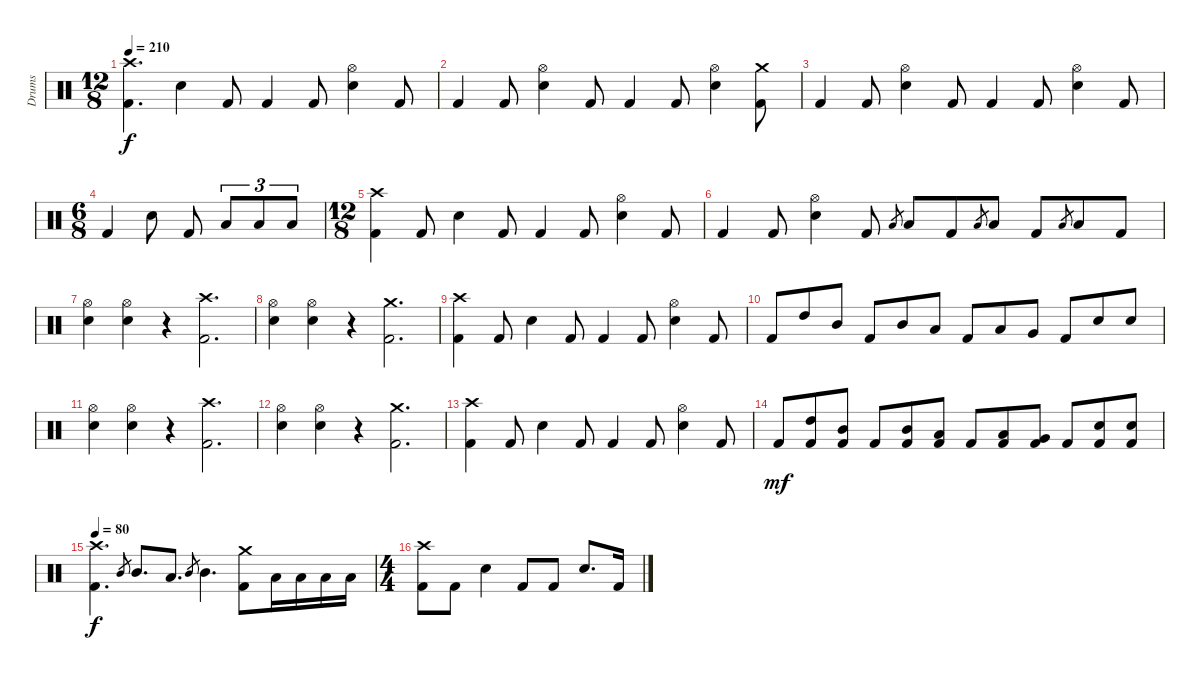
\track ("Drums" "Drums") {instrument percussion}
\staff {score}
\articulation defaults
\ts (12 8)
\tempo 210
\clef neutral
\ks c
("Kick (hit) 2" "Crash high (hit)").4{d dy f} "Snare (hit) 2".4 "Kick (hit) 2".8 "Kick (hit) 2".4 "Kick (hit) 2".8 ("Snare (hit) 2" "Hi-Hat (open)").4 "Kick (hit) 2".8 |
"Kick (hit) 2".4 "Kick (hit) 2".8 ("Snare (hit) 2" "Hi-Hat (open)").4 "Kick (hit) 2".8 "Kick (hit) 2".4 "Kick (hit) 2".8 ("Snare (hit) 2" "Hi-Hat (open)").4 ("Kick (hit) 2" "Crash medium (hit)").8 |
"Kick (hit) 2".4 "Kick (hit) 2".8 ("Snare (hit) 2" "Hi-Hat (open)").4 "Kick (hit) 2".8 "Kick (hit) 2".4 "Kick (hit) 2".8 ("Snare (hit) 2" "Hi-Hat (open)").4 "Kick (hit) 2".8 |
\ts (6 8)
"Kick (hit) 2".4 "Snare (hit) 2".8 "Kick (hit) 2".8 "Low Tom (hit)".8{tu (3 2)} "Low Tom (hit)".8{tu (3 2)} "Low Tom (hit)".8{tu (3 2)} |
\ts (12 8)
("Kick (hit) 2" "Crash high (hit)").4 "Kick (hit) 2".8 "Snare (hit) 2".4 "Kick (hit) 2".8 "Kick (hit) 2".4 "Kick (hit) 2".8 ("Snare (hit) 2" "Hi-Hat (open)").4 "Kick (hit) 2".8 |
"Kick (hit) 2".4 "Kick (hit) 2".8 ("Snare (hit) 2" "Hi-Hat (open)").4 "Kick (hit) 2".8 "Low Tom (hit)".8{gr} "Low Tom (hit)".8 "Kick (hit) 2".8 "Low Tom (hit)".8{gr} "Low Tom (hit)".8 "Kick (hit) 2".8 "Low Tom (hit)".8{gr} "Low Tom (hit)".8 "Kick (hit) 2".8 |
("Snare (hit) 2" "Hi-Hat (open)").4 ("Snare (hit) 2" "Hi-Hat (open)").4 r.4 ("Kick (hit) 2" "Crash high (hit)").2{d} |
("Snare (hit) 2" "Hi-Hat (open)").4 ("Snare (hit) 2" "Hi-Hat (open)").4 r.4 ("Kick (hit) 2" "Crash medium (hit)").2{d} |
("Kick (hit) 2" "Crash high (hit)").4 "Kick (hit) 2".8 "Snare (hit) 2".4 "Kick (hit) 2".8 "Kick (hit) 2".4 "Kick (hit) 2".8 ("Snare (hit) 2" "Hi-Hat (open)").4 "Kick (hit) 2".8 |
"Kick (hit) 2".8 "High Tom (hit)".8 "Mid Tom (hit)".8 "Kick (hit) 2".8 "Mid Tom (hit)".8 "Low Tom (hit)".8 "Kick (hit) 2".8 "Low Tom (hit)".8 "Very Low Tom (hit)".8 "Kick (hit) 2".8 "Snare (hit) 2".8 "Snare (hit) 2".8 |
("Snare (hit) 2" "Hi-Hat (open)").4 ("Snare (hit) 2" "Hi-Hat (open)").4 r.4 ("Kick (hit) 2" "Crash high (hit)").2{d} |
("Snare (hit) 2" "Hi-Hat (open)").4 ("Snare (hit) 2" "Hi-Hat (open)").4 r.4 ("Kick (hit) 2" "Crash medium (hit)").2{d} |
("Kick (hit) 2" "Crash high (hit)").4 "Kick (hit) 2".8 "Snare (hit) 2".4 "Kick (hit) 2".8 "Kick (hit) 2".4 "Kick (hit) 2".8 ("Snare (hit) 2" "Hi-Hat (open)").4 "Kick (hit) 2".8 |
"Kick (hit) 2".8{dy mf} ("Kick (hit) 2" "High Tom (hit)").8 ("Kick (hit) 2" "Mid Tom (hit)").8 "Kick (hit) 2".8 ("Kick (hit) 2" "Mid Tom (hit)").8 ("Kick (hit) 2" "Low Tom (hit)").8 "Kick (hit) 2".8 ("Kick (hit) 2" "Low Tom (hit)").8 ("Kick (hit) 2" "Very Low Tom (hit)").8 "Kick (hit) 2".8 ("Kick (hit) 2" "Snare (hit) 2").8 ("Kick (hit) 2" "Snare (hit) 2").8 |
\tempo 80
("Kick (hit) 2" "Crash high (hit)").4{d dy f} "Mid Tom (hit)".8{gr} "Mid Tom (hit)".8{d} "Low Tom (hit)".8{d} "Mid Tom (hit)".8{gr} "Mid Tom (hit)".4{d} ("Kick (hit) 2" "Crash medium (hit)").8 "Low Tom (hit)".16 "Low Tom (hit)".16 "Low Tom (hit)".16 "Low Tom (hit)".16 |
\ts (4 4)
("Kick (hit) 2" "Crash high (hit)").8 "Kick (hit) 2".8 "Snare (hit) 2".4 "Kick (hit) 2".8 "Kick (hit) 2".8 "Snare (hit) 2".8{d} "Kick (hit) 2".16
